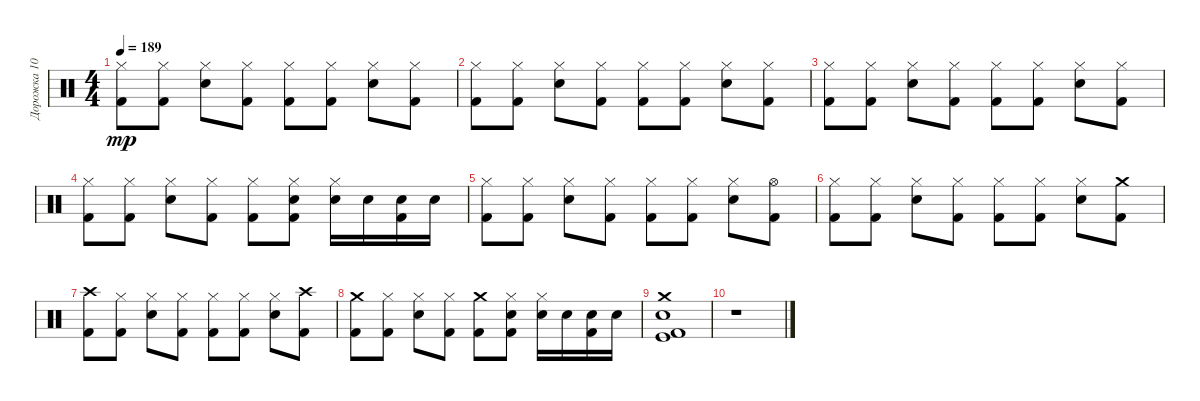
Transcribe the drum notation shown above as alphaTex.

\track ("Дорожка 10" "Дорожка 10") {instrument percussion}
\staff {score}
\articulation defaults
\ts (4 4)
\tempo 189
\clef neutral
\ks c
("Kick (hit) 2" "Hi-Hat (closed)").8{dy mp} ("Kick (hit) 2" "Hi-Hat (closed)").8 ("Snare (hit) 2" "Hi-Hat (closed)").8 ("Kick (hit) 2" "Hi-Hat (closed)").8 ("Kick (hit) 2" "Hi-Hat (closed)").8 ("Kick (hit) 2" "Hi-Hat (closed)").8 ("Snare (hit) 2" "Hi-Hat (closed)").8 ("Kick (hit) 2" "Hi-Hat (closed)").8 |
("Kick (hit) 2" "Hi-Hat (closed)").8 ("Kick (hit) 2" "Hi-Hat (closed)").8 ("Snare (hit) 2" "Hi-Hat (closed)").8 ("Kick (hit) 2" "Hi-Hat (closed)").8 ("Kick (hit) 2" "Hi-Hat (closed)").8 ("Kick (hit) 2" "Hi-Hat (closed)").8 ("Snare (hit) 2" "Hi-Hat (closed)").8 ("Kick (hit) 2" "Hi-Hat (closed)").8 |
("Kick (hit) 2" "Hi-Hat (closed)").8 ("Kick (hit) 2" "Hi-Hat (closed)").8 ("Snare (hit) 2" "Hi-Hat (closed)").8 ("Kick (hit) 2" "Hi-Hat (closed)").8 ("Kick (hit) 2" "Hi-Hat (closed)").8 ("Kick (hit) 2" "Hi-Hat (closed)").8 ("Snare (hit) 2" "Hi-Hat (closed)").8 ("Kick (hit) 2" "Hi-Hat (closed)").8 |
("Kick (hit) 2" "Hi-Hat (closed)").8 ("Kick (hit) 2" "Hi-Hat (closed)").8 ("Snare (hit) 2" "Hi-Hat (closed)").8 ("Kick (hit) 2" "Hi-Hat (closed)").8 ("Kick (hit) 2" "Hi-Hat (closed)").8 ("Kick (hit) 2" "Snare (hit) 2" "Hi-Hat (closed)").8 ("Snare (hit) 2" "Hi-Hat (closed)").16 "Snare (hit) 2".16 ("Kick (hit) 2" "Snare (hit) 2").16 "Snare (hit) 2".16 |
("Kick (hit) 2" "Hi-Hat (closed)").8 ("Kick (hit) 2" "Hi-Hat (closed)").8 ("Snare (hit) 2" "Hi-Hat (closed)").8 ("Kick (hit) 2" "Hi-Hat (closed)").8 ("Kick (hit) 2" "Hi-Hat (closed)").8 ("Kick (hit) 2" "Hi-Hat (closed)").8 ("Snare (hit) 2" "Hi-Hat (closed)").8 ("Kick (hit) 2" "Hi-Hat (open)").8 |
("Kick (hit) 2" "Hi-Hat (closed)").8 ("Kick (hit) 2" "Hi-Hat (closed)").8 ("Snare (hit) 2" "Hi-Hat (closed)").8 ("Kick (hit) 2" "Hi-Hat (closed)").8 ("Kick (hit) 2" "Hi-Hat (closed)").8 ("Kick (hit) 2" "Hi-Hat (closed)").8 ("Snare (hit) 2" "Hi-Hat (closed)").8 ("Kick (hit) 2" "Crash medium (hit)").8 |
("Kick (hit) 2" "Crash high (hit)").8 ("Kick (hit) 2" "Hi-Hat (closed)").8 ("Snare (hit) 2" "Hi-Hat (closed)").8 ("Kick (hit) 2" "Hi-Hat (closed)").8 ("Kick (hit) 2" "Hi-Hat (closed)").8 ("Kick (hit) 2" "Hi-Hat (closed)").8 ("Snare (hit) 2" "Hi-Hat (closed)").8 ("Kick (hit) 2" "Crash high (hit)").8 |
("Kick (hit) 2" "Crash medium (hit)").8 ("Kick (hit) 2" "Hi-Hat (closed)").8 ("Snare (hit) 2" "Hi-Hat (closed)").8 ("Kick (hit) 2" "Hi-Hat (closed)").8 ("Kick (hit) 2" "Crash medium (hit)").8 ("Kick (hit) 2" "Snare (hit) 2" "Hi-Hat (closed)").8 ("Snare (hit) 2" "Hi-Hat (closed)").16 "Snare (hit) 2".16 ("Kick (hit) 2" "Snare (hit) 2").16 "Snare (hit) 2".16 |
("Kick (hit)" "Kick (hit) 2" "Snare (hit) 2" "Crash medium (hit)").1 |
r.1
